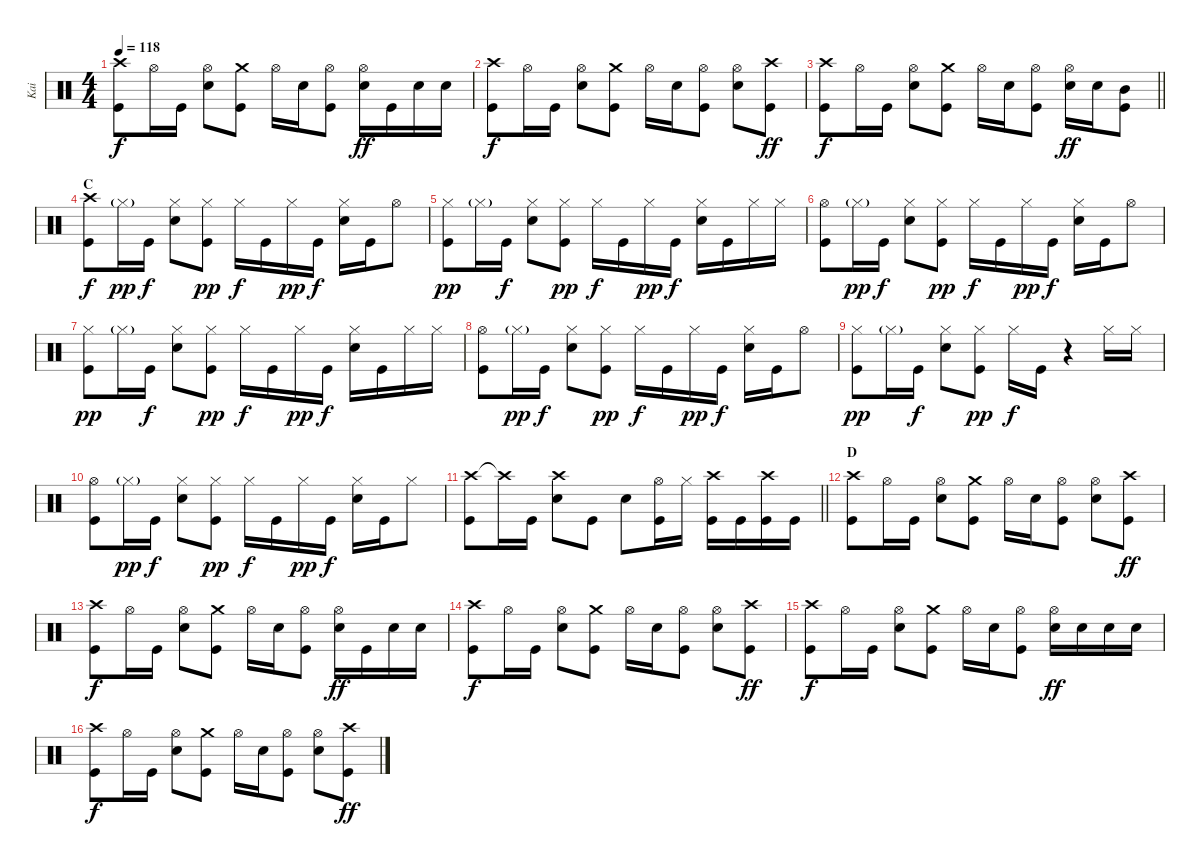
\track ("Kai" "Kai") {instrument percussion}
\staff {score}
\articulation defaults
\ts (4 4)
\tempo 118
\clef neutral
\ks c
("Kick (hit)" "Crash high (hit)").8{dy f} "Hi-Hat (open)".16 "Kick (hit)".16 ("Hi-Hat (open)" "Snare (hit) 2").8 ("Crash medium (hit)" "Kick (hit)").8 "Hi-Hat (open)".16 "Snare (hit) 2".16 ("Kick (hit)" "Hi-Hat (open)").8 ("Hi-Hat (open)" "Snare (hit) 2").16{dy ff} "Kick (hit)".16 "Snare (hit) 2".16 "Snare (hit) 2".16 |
("Kick (hit)" "Crash high (hit)").8{dy f} "Hi-Hat (open)".16 "Kick (hit)".16 ("Hi-Hat (open)" "Snare (hit) 2").8 ("Crash medium (hit)" "Kick (hit)").8 "Hi-Hat (open)".16 "Snare (hit) 2".16 ("Kick (hit)" "Hi-Hat (open)").8 ("Hi-Hat (open)" "Snare (hit) 2").8 ("Kick (hit)" "Crash high (hit)").8{dy ff} |
\barLineRight lightlight
("Kick (hit)" "Crash high (hit)").8{dy f} "Hi-Hat (open)".16 "Kick (hit)".16 ("Hi-Hat (open)" "Snare (hit) 2").8 ("Crash medium (hit)" "Kick (hit)").8 "Hi-Hat (open)".16 "Snare (hit) 2".16 ("Kick (hit)" "Hi-Hat (open)").8 ("Hi-Hat (open)" "Snare (hit) 2").16{dy ff} "Snare (hit) 2".16 ("Kick (hit)" "Mid Tom (hit)").8 |
\section ("" "C")
("Crash high (hit)" "Kick (hit)").8{dy f} "Hi-Hat (closed)"{g}.16{dy pp} "Kick (hit)".16{dy f} ("Hi-Hat (closed)" "Snare (hit) 2").8 ("Hi-Hat (closed)" "Kick (hit)").8{dy pp} "Hi-Hat (closed)".16{dy f} "Kick (hit)".16 "Hi-Hat (closed)".16{dy pp} "Kick (hit)".16{dy f} ("Hi-Hat (closed)" "Snare (hit) 2").16 "Kick (hit)".16 "Hi-Hat (open)".8 |
("Hi-Hat (closed)" "Kick (hit)").8{dy pp} "Hi-Hat (closed)"{g}.16 "Kick (hit)".16{dy f} ("Hi-Hat (closed)" "Snare (hit) 2").8 ("Hi-Hat (closed)" "Kick (hit)").8{dy pp} "Hi-Hat (closed)".16{dy f} "Kick (hit)".16 "Hi-Hat (closed)".16{dy pp} "Kick (hit)".16{dy f} ("Hi-Hat (closed)" "Snare (hit) 2").16 "Kick (hit)".16 "Hi-Hat (closed)".16 "Hi-Hat (closed)".16 |
("Kick (hit)" "Hi-Hat (open)").8 "Hi-Hat (closed)"{g}.16{dy pp} "Kick (hit)".16{dy f} ("Hi-Hat (closed)" "Snare (hit) 2").8 ("Hi-Hat (closed)" "Kick (hit)").8{dy pp} "Hi-Hat (closed)".16{dy f} "Kick (hit)".16 "Hi-Hat (closed)".16{dy pp} "Kick (hit)".16{dy f} ("Hi-Hat (closed)" "Snare (hit) 2").16 "Kick (hit)".16 "Hi-Hat (open)".8 |
("Hi-Hat (closed)" "Kick (hit)").8{dy pp} "Hi-Hat (closed)"{g}.16 "Kick (hit)".16{dy f} ("Hi-Hat (closed)" "Snare (hit) 2").8 ("Hi-Hat (closed)" "Kick (hit)").8{dy pp} "Hi-Hat (closed)".16{dy f} "Kick (hit)".16 "Hi-Hat (closed)".16{dy pp} "Kick (hit)".16{dy f} ("Hi-Hat (closed)" "Snare (hit) 2").16 "Kick (hit)".16 "Hi-Hat (closed)".16 "Hi-Hat (closed)".16 |
("Kick (hit)" "Hi-Hat (open)").8 "Hi-Hat (closed)"{g}.16{dy pp} "Kick (hit)".16{dy f} ("Hi-Hat (closed)" "Snare (hit) 2").8 ("Hi-Hat (closed)" "Kick (hit)").8{dy pp} "Hi-Hat (closed)".16{dy f} "Kick (hit)".16 "Hi-Hat (closed)".16{dy pp} "Kick (hit)".16{dy f} ("Hi-Hat (closed)" "Snare (hit) 2").16 "Kick (hit)".16 "Hi-Hat (open)".8 |
("Hi-Hat (closed)" "Kick (hit)").8{dy pp} "Hi-Hat (closed)"{g}.16 "Kick (hit)".16{dy f} ("Hi-Hat (closed)" "Snare (hit) 2").8 ("Hi-Hat (closed)" "Kick (hit)").8{dy pp} "Hi-Hat (closed)".16{dy f} "Kick (hit)".16 r.4 "Hi-Hat (closed)".16 "Hi-Hat (closed)".16 |
("Kick (hit)" "Hi-Hat (open)").8 "Hi-Hat (closed)"{g}.16{dy pp} "Kick (hit)".16{dy f} ("Hi-Hat (closed)" "Snare (hit) 2").8 ("Hi-Hat (closed)" "Kick (hit)").8{dy pp} "Hi-Hat (closed)".16{dy f} "Kick (hit)".16 "Hi-Hat (closed)".16{dy pp} "Kick (hit)".16{dy f} ("Hi-Hat (closed)" "Snare (hit) 2").16 "Kick (hit)".16 "Hi-Hat (closed)".8 |
\barLineRight lightlight
("Crash high (hit)" "Kick (hit)").8 "Crash high (hit)"{t}.16 "Kick (hit)".16 ("Crash high (hit)" "Snare (hit) 2").8 "Kick (hit)".8 "Snare (hit) 2".8 ("Kick (hit)" "Hi-Hat (open)").16 "Hi-Hat (closed)".16 ("Kick (hit)" "Crash high (hit)").16 "Kick (hit)".16 ("Kick (hit)" "Crash high (hit)").16 "Kick (hit)".16 |
\section ("" "D")
("Kick (hit)" "Crash high (hit)").8 "Hi-Hat (open)".16 "Kick (hit)".16 ("Hi-Hat (open)" "Snare (hit) 2").8 ("Crash medium (hit)" "Kick (hit)").8 "Hi-Hat (open)".16 "Snare (hit) 2".16 ("Kick (hit)" "Hi-Hat (open)").8 ("Hi-Hat (open)" "Snare (hit) 2").8 ("Kick (hit)" "Crash high (hit)").8{dy ff} |
("Kick (hit)" "Crash high (hit)").8{dy f} "Hi-Hat (open)".16 "Kick (hit)".16 ("Hi-Hat (open)" "Snare (hit) 2").8 ("Crash medium (hit)" "Kick (hit)").8 "Hi-Hat (open)".16 "Snare (hit) 2".16 ("Kick (hit)" "Hi-Hat (open)").8 ("Hi-Hat (open)" "Snare (hit) 2").16{dy ff} "Kick (hit)".16 "Snare (hit) 2".16 "Snare (hit) 2".16 |
("Kick (hit)" "Crash high (hit)").8{dy f} "Hi-Hat (open)".16 "Kick (hit)".16 ("Hi-Hat (open)" "Snare (hit) 2").8 ("Crash medium (hit)" "Kick (hit)").8 "Hi-Hat (open)".16 "Snare (hit) 2".16 ("Kick (hit)" "Hi-Hat (open)").8 ("Hi-Hat (open)" "Snare (hit) 2").8 ("Kick (hit)" "Crash high (hit)").8{dy ff} |
("Kick (hit)" "Crash high (hit)").8{dy f} "Hi-Hat (open)".16 "Kick (hit)".16 ("Hi-Hat (open)" "Snare (hit) 2").8 ("Crash medium (hit)" "Kick (hit)").8 "Hi-Hat (open)".16 "Snare (hit) 2".16 ("Kick (hit)" "Hi-Hat (open)").8 ("Hi-Hat (open)" "Snare (hit) 2").16{dy ff} "Snare (hit) 2".16 "Snare (hit) 2".16 "Snare (hit) 2".16 |
("Kick (hit)" "Crash high (hit)").8{dy f} "Hi-Hat (open)".16 "Kick (hit)".16 ("Hi-Hat (open)" "Snare (hit) 2").8 ("Crash medium (hit)" "Kick (hit)").8 "Hi-Hat (open)".16 "Snare (hit) 2".16 ("Kick (hit)" "Hi-Hat (open)").8 ("Hi-Hat (open)" "Snare (hit) 2").8 ("Kick (hit)" "Crash high (hit)").8{dy ff}
